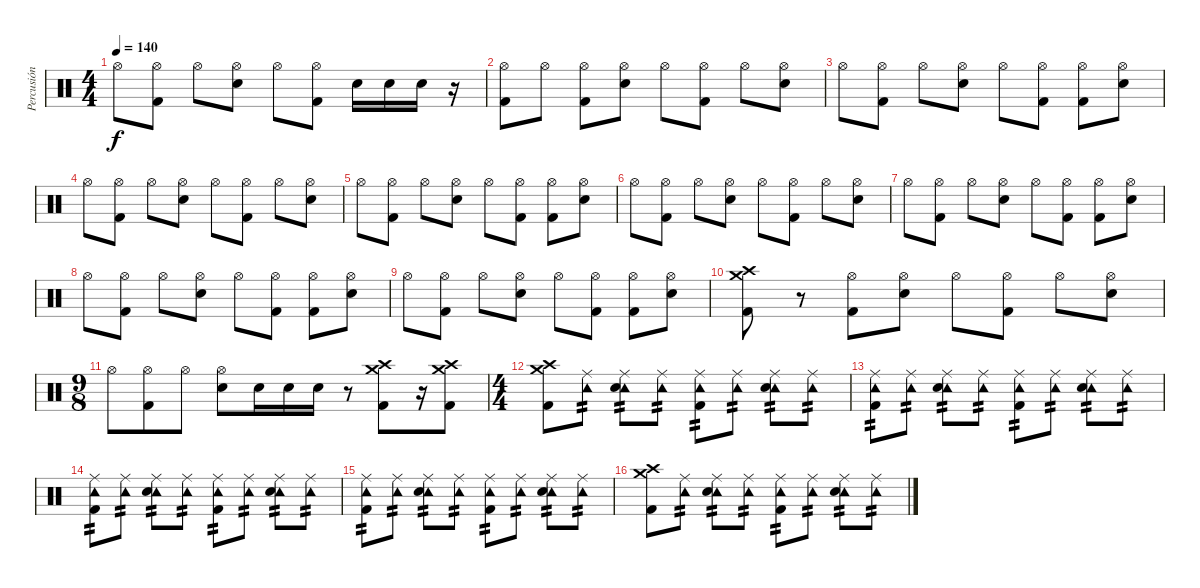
\track ("Percusión" "Percusión") {instrument percussion}
\staff {score}
\articulation defaults
\ts (4 4)
\tempo 140
\clef neutral
\ks c "Hi-Hat (open)".8{dy f}
("Hi-Hat (open)" "Kick (hit) 2").8 "Hi-Hat (open)".8 ("Hi-Hat (open)" "Electric Snare (hit)").8 "Hi-Hat (open)".8 ("Hi-Hat (open)" "Kick (hit) 2").8 "Electric Snare (hit)".16 "Electric Snare (hit)".16 "Electric Snare (hit)".16 r.16 |
("Hi-Hat (open)" "Kick (hit) 2").8 "Hi-Hat (open)".8 ("Hi-Hat (open)" "Kick (hit) 2").8 ("Hi-Hat (open)" "Electric Snare (hit)").8 "Hi-Hat (open)".8 ("Hi-Hat (open)" "Kick (hit) 2").8 "Hi-Hat (open)".8 ("Hi-Hat (open)" "Electric Snare (hit)").8 |
"Hi-Hat (open)".8 ("Hi-Hat (open)" "Kick (hit) 2").8 "Hi-Hat (open)".8 ("Hi-Hat (open)" "Electric Snare (hit)").8 "Hi-Hat (open)".8 ("Hi-Hat (open)" "Kick (hit) 2").8 ("Hi-Hat (open)" "Kick (hit) 2").8 ("Hi-Hat (open)" "Electric Snare (hit)").8 |
"Hi-Hat (open)".8 ("Hi-Hat (open)" "Kick (hit) 2").8 "Hi-Hat (open)".8 ("Hi-Hat (open)" "Electric Snare (hit)").8 "Hi-Hat (open)".8 ("Hi-Hat (open)" "Kick (hit) 2").8 "Hi-Hat (open)".8 ("Hi-Hat (open)" "Electric Snare (hit)").8 |
"Hi-Hat (open)".8 ("Hi-Hat (open)" "Kick (hit) 2").8 "Hi-Hat (open)".8 ("Hi-Hat (open)" "Electric Snare (hit)").8 "Hi-Hat (open)".8 ("Hi-Hat (open)" "Kick (hit) 2").8 ("Hi-Hat (open)" "Kick (hit) 2").8 ("Hi-Hat (open)" "Electric Snare (hit)").8 |
"Hi-Hat (open)".8 ("Hi-Hat (open)" "Kick (hit) 2").8 "Hi-Hat (open)".8 ("Hi-Hat (open)" "Electric Snare (hit)").8 "Hi-Hat (open)".8 ("Hi-Hat (open)" "Kick (hit) 2").8 "Hi-Hat (open)".8 ("Hi-Hat (open)" "Electric Snare (hit)").8 |
"Hi-Hat (open)".8 ("Hi-Hat (open)" "Kick (hit) 2").8 "Hi-Hat (open)".8 ("Hi-Hat (open)" "Electric Snare (hit)").8 "Hi-Hat (open)".8 ("Hi-Hat (open)" "Kick (hit) 2").8 ("Hi-Hat (open)" "Kick (hit) 2").8 ("Hi-Hat (open)" "Electric Snare (hit)").8 |
"Hi-Hat (open)".8 ("Hi-Hat (open)" "Kick (hit) 2").8 "Hi-Hat (open)".8 ("Hi-Hat (open)" "Electric Snare (hit)").8 "Hi-Hat (open)".8 ("Hi-Hat (open)" "Kick (hit) 2").8 ("Hi-Hat (open)" "Kick (hit) 2").8 ("Hi-Hat (open)" "Electric Snare (hit)").8 |
"Hi-Hat (open)".8 ("Hi-Hat (open)" "Kick (hit) 2").8 "Hi-Hat (open)".8 ("Hi-Hat (open)" "Electric Snare (hit)").8 "Hi-Hat (open)".8 ("Hi-Hat (open)" "Kick (hit) 2").8 ("Hi-Hat (open)" "Kick (hit) 2").8 ("Hi-Hat (open)" "Electric Snare (hit)").8 |
("Crash high (hit)" "Crash medium (hit)" "Kick (hit) 2").8 r.8 ("Hi-Hat (open)" "Kick (hit) 2").8 ("Hi-Hat (open)" "Electric Snare (hit)").8 "Hi-Hat (open)".8 ("Hi-Hat (open)" "Kick (hit) 2").8 "Hi-Hat (open)".8 ("Hi-Hat (open)" "Electric Snare (hit)").8 |
\ts (9 8)
"Hi-Hat (open)".8 ("Hi-Hat (open)" "Kick (hit) 2").8 "Hi-Hat (open)".8 ("Hi-Hat (open)" "Electric Snare (hit)").8 "Electric Snare (hit)".16 "Electric Snare (hit)".16 "Electric Snare (hit)".16 r.8 ("Crash high (hit)" "Crash medium (hit)" "Kick (hit) 2").8 r.16 ("Crash high (hit)" "Crash medium (hit)" "Kick (hit) 2").8 |
\ts (4 4)
("Crash high (hit)" "Crash medium (hit)" "Kick (hit) 2").8 ("Tambourine (hit)" "Ride (middle)").8{tp 2} ("Tambourine (hit)" "Ride (middle)" "Electric Snare (hit)").8{tp 2} ("Tambourine (hit)" "Ride (middle)").8{tp 2} ("Tambourine (hit)" "Ride (middle)" "Kick (hit) 2").8{tp 2} ("Tambourine (hit)" "Ride (middle)").8{tp 2} ("Tambourine (hit)" "Ride (middle)" "Electric Snare (hit)").8{tp 2} ("Tambourine (hit)" "Ride (middle)").8{tp 2} |
("Tambourine (hit)" "Ride (middle)" "Kick (hit) 2").8{tp 2} ("Tambourine (hit)" "Ride (middle)").8{tp 2} ("Tambourine (hit)" "Ride (middle)" "Electric Snare (hit)").8{tp 2} ("Tambourine (hit)" "Ride (middle)").8{tp 2} ("Tambourine (hit)" "Ride (middle)" "Kick (hit) 2").8{tp 2} ("Tambourine (hit)" "Ride (middle)").8{tp 2} ("Tambourine (hit)" "Ride (middle)" "Electric Snare (hit)").8{tp 2} ("Tambourine (hit)" "Ride (middle)").8{tp 2} |
("Tambourine (hit)" "Ride (middle)" "Kick (hit) 2").8{tp 2} ("Tambourine (hit)" "Ride (middle)").8{tp 2} ("Tambourine (hit)" "Ride (middle)" "Electric Snare (hit)").8{tp 2} ("Tambourine (hit)" "Ride (middle)").8{tp 2} ("Tambourine (hit)" "Ride (middle)" "Kick (hit) 2").8{tp 2} ("Tambourine (hit)" "Ride (middle)").8{tp 2} ("Tambourine (hit)" "Ride (middle)" "Electric Snare (hit)").8{tp 2} ("Tambourine (hit)" "Ride (middle)").8{tp 2} |
("Tambourine (hit)" "Ride (middle)" "Kick (hit) 2").8{tp 2} ("Tambourine (hit)" "Ride (middle)").8{tp 2} ("Tambourine (hit)" "Ride (middle)" "Electric Snare (hit)").8{tp 2} ("Tambourine (hit)" "Ride (middle)").8{tp 2} ("Tambourine (hit)" "Ride (middle)" "Kick (hit) 2").8{tp 2} ("Tambourine (hit)" "Ride (middle)").8{tp 2} ("Tambourine (hit)" "Ride (middle)" "Electric Snare (hit)").8{tp 2} ("Tambourine (hit)" "Ride (middle)").8{tp 2} |
("Crash high (hit)" "Crash medium (hit)" "Kick (hit) 2").8 ("Tambourine (hit)" "Ride (middle)").8{tp 2} ("Tambourine (hit)" "Ride (middle)" "Electric Snare (hit)").8{tp 2} ("Tambourine (hit)" "Ride (middle)").8{tp 2} ("Tambourine (hit)" "Ride (middle)" "Kick (hit) 2").8{tp 2} ("Tambourine (hit)" "Ride (middle)").8{tp 2} ("Tambourine (hit)" "Ride (middle)" "Electric Snare (hit)").8{tp 2} ("Tambourine (hit)" "Ride (middle)").8{tp 2}
